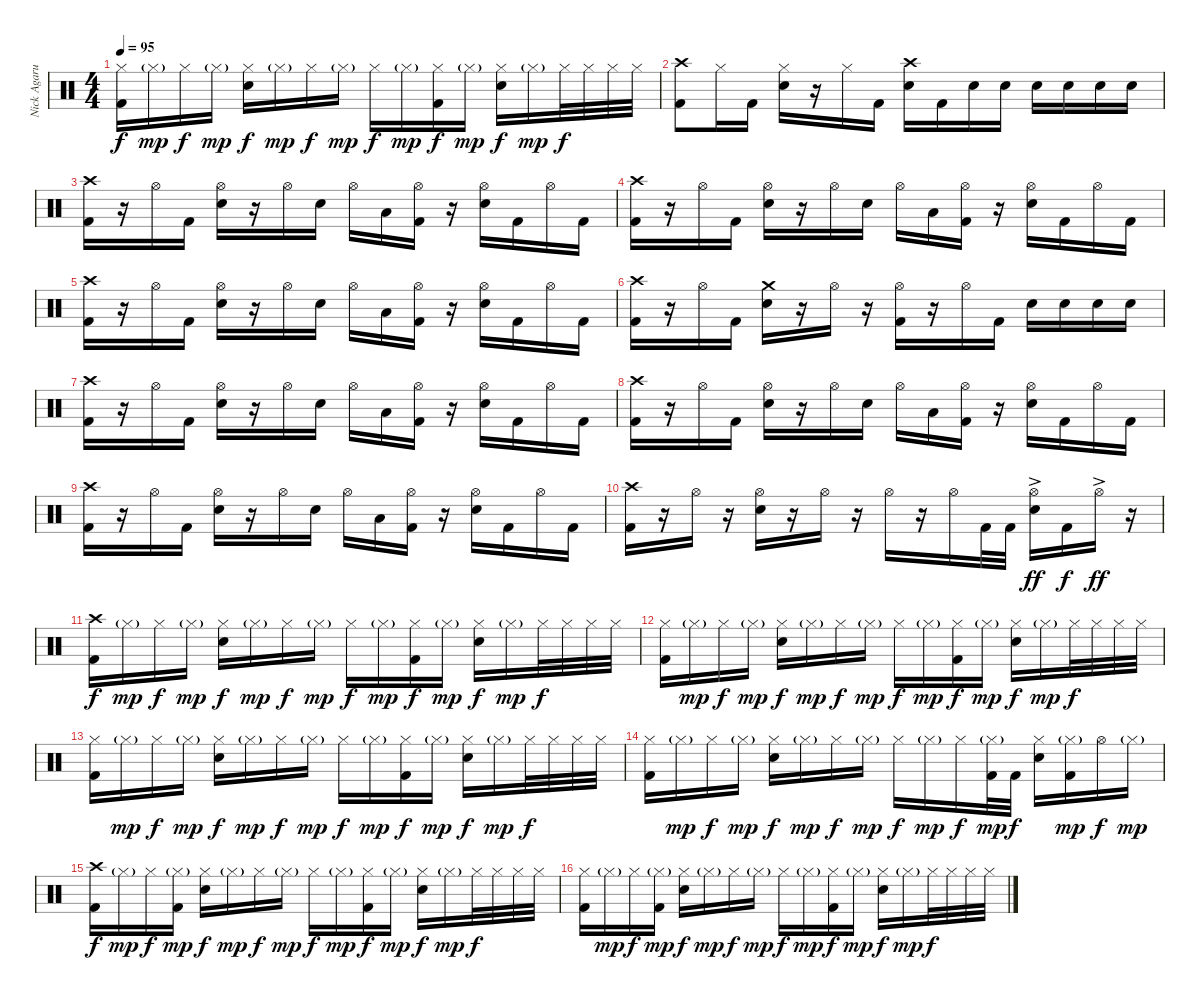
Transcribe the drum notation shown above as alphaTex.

\track ("Nick Agarua" "Nick Agaru") {instrument percussion}
\staff {score}
\articulation defaults
\ts (4 4)
\tempo 95
\clef neutral
\ks c
("Hi-Hat (closed)" "Kick (hit) 2").16{dy f} "Hi-Hat (closed)"{g}.16{dy mp} "Hi-Hat (closed)".16{dy f} "Hi-Hat (closed)"{g}.16{dy mp} ("Hi-Hat (closed)" "Electric Snare (hit)").16{dy f} "Hi-Hat (closed)"{g}.16{dy mp} "Hi-Hat (closed)".16{dy f} "Hi-Hat (closed)"{g}.16{dy mp} "Hi-Hat (closed)".16{dy f} "Hi-Hat (closed)"{g}.16{dy mp} ("Hi-Hat (closed)" "Kick (hit) 2").16{dy f} "Hi-Hat (closed)"{g}.16{dy mp} ("Hi-Hat (closed)" "Electric Snare (hit)").16{dy f} "Hi-Hat (closed)"{g}.16{dy mp} "Hi-Hat (closed)".32{dy f} "Hi-Hat (closed)".32 "Hi-Hat (closed)".32 "Hi-Hat (closed)".32 |
("Crash high (hit)" "Kick (hit) 2").8 "Hi-Hat (closed)".16 "Kick (hit) 2".16 ("Hi-Hat (closed)" "Electric Snare (hit)").16 r.16 "Hi-Hat (closed)".16 "Kick (hit) 2".16 ("Crash high (hit)" "Electric Snare (hit)").16 "Kick (hit) 2".16 "Electric Snare (hit)".16 "Electric Snare (hit)".16 "Electric Snare (hit)".16 "Electric Snare (hit)".16 "Electric Snare (hit)".16 "Electric Snare (hit)".16 |
("Crash high (hit)" "Kick (hit) 2").16 r.16 "Hi-Hat (open)".16 "Kick (hit) 2".16 ("Hi-Hat (open)" "Electric Snare (hit)").16 r.16 "Hi-Hat (open)".16 "Electric Snare (hit)".16 "Hi-Hat (open)".16 "Low Tom (hit)".16 ("Hi-Hat (open)" "Kick (hit) 2").16 r.16 ("Hi-Hat (open)" "Electric Snare (hit)").16 "Kick (hit) 2".16 "Hi-Hat (open)".16 "Kick (hit) 2".16 |
("Crash high (hit)" "Kick (hit) 2").16 r.16 "Hi-Hat (open)".16 "Kick (hit) 2".16 ("Hi-Hat (open)" "Electric Snare (hit)").16 r.16 "Hi-Hat (open)".16 "Electric Snare (hit)".16 "Hi-Hat (open)".16 "Low Tom (hit)".16 ("Hi-Hat (open)" "Kick (hit) 2").16 r.16 ("Hi-Hat (open)" "Electric Snare (hit)").16 "Kick (hit) 2".16 "Hi-Hat (open)".16 "Kick (hit) 2".16 |
("Crash high (hit)" "Kick (hit) 2").16 r.16 "Hi-Hat (open)".16 "Kick (hit) 2".16 ("Hi-Hat (open)" "Electric Snare (hit)").16 r.16 "Hi-Hat (open)".16 "Electric Snare (hit)".16 "Hi-Hat (open)".16 "Low Tom (hit)".16 ("Hi-Hat (open)" "Kick (hit) 2").16 r.16 ("Hi-Hat (open)" "Electric Snare (hit)").16 "Kick (hit) 2".16 "Hi-Hat (open)".16 "Kick (hit) 2".16 |
("Crash high (hit)" "Kick (hit) 2").16 r.16 "Hi-Hat (open)".16 "Kick (hit) 2".16 ("Crash medium (hit)" "Electric Snare (hit)").16 r.16 "Hi-Hat (open)".16 r.16 ("Hi-Hat (open)" "Kick (hit) 2").16 r.16 "Hi-Hat (open)".16 "Kick (hit) 2".16 "Electric Snare (hit)".16 "Electric Snare (hit)".16 "Electric Snare (hit)".16 "Electric Snare (hit)".16 |
("Crash high (hit)" "Kick (hit) 2").16 r.16 "Hi-Hat (open)".16 "Kick (hit) 2".16 ("Hi-Hat (open)" "Electric Snare (hit)").16 r.16 "Hi-Hat (open)".16 "Electric Snare (hit)".16 "Hi-Hat (open)".16 "Low Tom (hit)".16 ("Hi-Hat (open)" "Kick (hit) 2").16 r.16 ("Hi-Hat (open)" "Electric Snare (hit)").16 "Kick (hit) 2".16 "Hi-Hat (open)".16 "Kick (hit) 2".16 |
("Crash high (hit)" "Kick (hit) 2").16 r.16 "Hi-Hat (open)".16 "Kick (hit) 2".16 ("Hi-Hat (open)" "Electric Snare (hit)").16 r.16 "Hi-Hat (open)".16 "Electric Snare (hit)".16 "Hi-Hat (open)".16 "Low Tom (hit)".16 ("Hi-Hat (open)" "Kick (hit) 2").16 r.16 ("Hi-Hat (open)" "Electric Snare (hit)").16 "Kick (hit) 2".16 "Hi-Hat (open)".16 "Kick (hit) 2".16 |
("Crash high (hit)" "Kick (hit) 2").16 r.16 "Hi-Hat (open)".16 "Kick (hit) 2".16 ("Hi-Hat (open)" "Electric Snare (hit)").16 r.16 "Hi-Hat (open)".16 "Electric Snare (hit)".16 "Hi-Hat (open)".16 "Low Tom (hit)".16 ("Hi-Hat (open)" "Kick (hit) 2").16 r.16 ("Hi-Hat (open)" "Electric Snare (hit)").16 "Kick (hit) 2".16 "Hi-Hat (open)".16 "Kick (hit) 2".16 |
("Crash high (hit)" "Kick (hit) 2").16 r.16 "Hi-Hat (open)".16 r.16 ("Hi-Hat (open)" "Electric Snare (hit)").16 r.16 "Hi-Hat (open)".16 r.16 "Hi-Hat (open)".16 r.16 "Hi-Hat (open)".16 "Kick (hit) 2".32 "Kick (hit) 2".32 ("Hi-Hat (open)"{ac} "Electric Snare (hit)").16{dy ff} "Kick (hit) 2".16{dy f} "Hi-Hat (open)"{ac}.16{dy ff} r.16 |
("Crash high (hit)" "Kick (hit) 2").16{dy f} "Hi-Hat (closed)"{g}.16{dy mp} "Hi-Hat (closed)".16{dy f} "Hi-Hat (closed)"{g}.16{dy mp} ("Hi-Hat (closed)" "Electric Snare (hit)").16{dy f} "Hi-Hat (closed)"{g}.16{dy mp} "Hi-Hat (closed)".16{dy f} "Hi-Hat (closed)"{g}.16{dy mp} "Hi-Hat (closed)".16{dy f} "Hi-Hat (closed)"{g}.16{dy mp} ("Hi-Hat (closed)" "Kick (hit) 2").16{dy f} "Hi-Hat (closed)"{g}.16{dy mp} ("Hi-Hat (closed)" "Electric Snare (hit)").16{dy f} "Hi-Hat (closed)"{g}.16{dy mp} "Hi-Hat (closed)".32{dy f} "Hi-Hat (closed)".32 "Hi-Hat (closed)".32 "Hi-Hat (closed)".32 |
("Hi-Hat (closed)" "Kick (hit) 2").16 "Hi-Hat (closed)"{g}.16{dy mp} "Hi-Hat (closed)".16{dy f} "Hi-Hat (closed)"{g}.16{dy mp} ("Hi-Hat (closed)" "Electric Snare (hit)").16{dy f} "Hi-Hat (closed)"{g}.16{dy mp} "Hi-Hat (closed)".16{dy f} "Hi-Hat (closed)"{g}.16{dy mp} "Hi-Hat (closed)".16{dy f} "Hi-Hat (closed)"{g}.16{dy mp} ("Hi-Hat (closed)" "Kick (hit) 2").16{dy f} "Hi-Hat (closed)"{g}.16{dy mp} ("Hi-Hat (closed)" "Electric Snare (hit)").16{dy f} "Hi-Hat (closed)"{g}.16{dy mp} "Hi-Hat (closed)".32{dy f} "Hi-Hat (closed)".32 "Hi-Hat (closed)".32 "Hi-Hat (closed)".32 |
("Hi-Hat (closed)" "Kick (hit) 2").16 "Hi-Hat (closed)"{g}.16{dy mp} "Hi-Hat (closed)".16{dy f} "Hi-Hat (closed)"{g}.16{dy mp} ("Hi-Hat (closed)" "Electric Snare (hit)").16{dy f} "Hi-Hat (closed)"{g}.16{dy mp} "Hi-Hat (closed)".16{dy f} "Hi-Hat (closed)"{g}.16{dy mp} "Hi-Hat (closed)".16{dy f} "Hi-Hat (closed)"{g}.16{dy mp} ("Hi-Hat (closed)" "Kick (hit) 2").16{dy f} "Hi-Hat (closed)"{g}.16{dy mp} ("Hi-Hat (closed)" "Electric Snare (hit)").16{dy f} "Hi-Hat (closed)"{g}.16{dy mp} "Hi-Hat (closed)".32{dy f} "Hi-Hat (closed)".32 "Hi-Hat (closed)".32 "Hi-Hat (closed)".32 |
("Hi-Hat (closed)" "Kick (hit) 2").16 "Hi-Hat (closed)"{g}.16{dy mp} "Hi-Hat (closed)".16{dy f} "Hi-Hat (closed)"{g}.16{dy mp} ("Hi-Hat (closed)" "Electric Snare (hit)").16{dy f} "Hi-Hat (closed)"{g}.16{dy mp} "Hi-Hat (closed)".16{dy f} "Hi-Hat (closed)"{g}.16{dy mp} "Hi-Hat (closed)".16{dy f} "Hi-Hat (closed)"{g}.16{dy mp} "Hi-Hat (closed)".16{dy f} ("Hi-Hat (closed)"{g} "Kick (hit) 2").32{dy mp} "Kick (hit) 2".32{dy f} ("Hi-Hat (closed)" "Electric Snare (hit)").16 ("Hi-Hat (closed)"{g} "Kick (hit) 2").16{dy mp} "Hi-Hat (open)".16{dy f} "Hi-Hat (closed)"{g}.16{dy mp} |
("Crash high (hit)" "Kick (hit) 2").16{dy f} "Hi-Hat (closed)"{g}.16{dy mp} "Hi-Hat (closed)".16{dy f} ("Hi-Hat (closed)"{g} "Kick (hit) 2").16{dy mp} ("Hi-Hat (closed)" "Electric Snare (hit)").16{dy f} "Hi-Hat (closed)"{g}.16{dy mp} "Hi-Hat (closed)".16{dy f} "Hi-Hat (closed)"{g}.16{dy mp} "Hi-Hat (closed)".16{dy f} "Hi-Hat (closed)"{g}.16{dy mp} ("Hi-Hat (closed)" "Kick (hit) 2").16{dy f} "Hi-Hat (closed)"{g}.16{dy mp} ("Hi-Hat (closed)" "Electric Snare (hit)").16{dy f} "Hi-Hat (closed)"{g}.16{dy mp} "Hi-Hat (closed)".32{dy f} "Hi-Hat (closed)".32 "Hi-Hat (closed)".32 "Hi-Hat (closed)".32 |
("Hi-Hat (closed)" "Kick (hit) 2").16 "Hi-Hat (closed)"{g}.16{dy mp} "Hi-Hat (closed)".16{dy f} ("Hi-Hat (closed)"{g} "Kick (hit) 2").16{dy mp} ("Hi-Hat (closed)" "Electric Snare (hit)").16{dy f} "Hi-Hat (closed)"{g}.16{dy mp} "Hi-Hat (closed)".16{dy f} "Hi-Hat (closed)"{g}.16{dy mp} "Hi-Hat (closed)".16{dy f} "Hi-Hat (closed)"{g}.16{dy mp} ("Hi-Hat (closed)" "Kick (hit) 2").16{dy f} "Hi-Hat (closed)"{g}.16{dy mp} ("Hi-Hat (closed)" "Electric Snare (hit)").16{dy f} "Hi-Hat (closed)"{g}.16{dy mp} "Hi-Hat (closed)".32{dy f} "Hi-Hat (closed)".32 "Hi-Hat (closed)".32 "Hi-Hat (closed)".32
